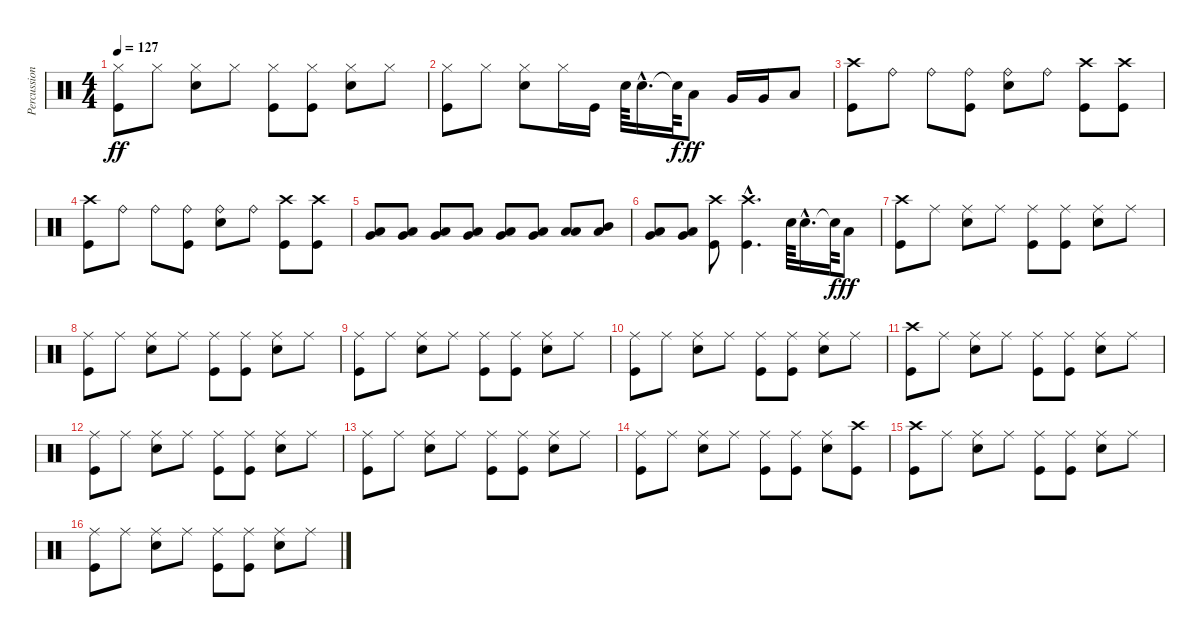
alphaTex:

\track ("Percussion" "Percussion") {instrument percussion}
\staff {score}
\articulation defaults
\ts (4 4)
\tempo 127
\clef neutral
\ks c
("Hi-Hat (closed)" "Kick (hit)").8{dy ff} "Hi-Hat (closed)".8 ("Hi-Hat (closed)" "Snare (hit) 2").8 "Hi-Hat (closed)".8 ("Hi-Hat (closed)" "Kick (hit)").8 ("Hi-Hat (closed)" "Kick (hit)").8 ("Hi-Hat (closed)" "Snare (hit) 2").8 "Hi-Hat (closed)".8 |
("Hi-Hat (closed)" "Kick (hit)").8 "Hi-Hat (closed)".8 ("Hi-Hat (closed)" "Snare (hit) 2").8 "Hi-Hat (closed)".16 "Kick (hit)".16 "Snare (hit) 2".64 "Snare (hit) 2"{hac}.16{d} "Snare (hit)"{t}.64{dy f} "Low Tom (hit)".8{dy ff} "Very Low Tom (hit)".16 "Very Low Tom (hit)".16 "Low Floor Tom (hit)".8 |
("Crash high (hit)" "Kick (hit)").8 "Ride (bell)".8 "Ride (bell)".8 ("Ride (bell)" "Kick (hit)").8 ("Ride (bell)" "Snare (hit) 2").8 "Ride (bell)".8 ("Crash high (hit)" "Kick (hit)").8 ("Crash high (hit)" "Kick (hit)").8 |
("Crash high (hit)" "Kick (hit)").8 "Ride (bell)".8 "Ride (bell)".8 ("Ride (bell)" "Kick (hit)").8 ("Ride (bell)" "Snare (hit) 2").8 "Ride (bell)".8 ("Crash high (hit)" "Kick (hit)").8 ("Crash high (hit)" "Kick (hit)").8 |
("Very Low Tom (hit)" "Low Floor Tom (hit)").8 ("Very Low Tom (hit)" "Low Floor Tom (hit)").8 ("Very Low Tom (hit)" "Low Floor Tom (hit)").8 ("Very Low Tom (hit)" "Low Floor Tom (hit)").8 ("Very Low Tom (hit)" "Low Floor Tom (hit)").8 ("Very Low Tom (hit)" "Low Floor Tom (hit)").8 ("Low Tom (hit)" "Low Floor Tom (hit)").8 ("Mid Tom (hit)" "Low Floor Tom (hit)").8 |
("Very Low Tom (hit)" "Low Floor Tom (hit)").8 ("Very Low Tom (hit)" "Low Floor Tom (hit)").8 ("Crash high (hit)" "Kick (hit)").8 ("Crash high (hit)"{hac} "Kick (hit)"{hac}).4{d} "Snare (hit) 2".64 "Snare (hit) 2"{hac}.16{d} "Snare (hit)"{t}.64{dy f} "Low Tom (hit)".8{dy ff} |
("Crash high (hit)" "Kick (hit)").8 "Ride (middle)".8 ("Ride (middle)" "Snare (hit) 2").8 "Ride (middle)".8 ("Ride (middle)" "Kick (hit)").8 ("Ride (middle)" "Kick (hit)").8 ("Ride (middle)" "Snare (hit) 2").8 "Ride (middle)".8 |
("Ride (middle)" "Kick (hit)").8 "Ride (middle)".8 ("Ride (middle)" "Snare (hit) 2").8 "Ride (middle)".8 ("Ride (middle)" "Kick (hit)").8 ("Ride (middle)" "Kick (hit)").8 ("Ride (middle)" "Snare (hit) 2").8 "Ride (middle)".8 |
("Ride (middle)" "Kick (hit)").8 "Ride (middle)".8 ("Ride (middle)" "Snare (hit) 2").8 "Ride (middle)".8 ("Ride (middle)" "Kick (hit)").8 ("Ride (middle)" "Kick (hit)").8 ("Ride (middle)" "Snare (hit) 2").8 "Ride (middle)".8 |
("Ride (middle)" "Kick (hit)").8 "Ride (middle)".8 ("Ride (middle)" "Snare (hit) 2").8 "Ride (middle)".8 ("Ride (middle)" "Kick (hit)").8 ("Ride (middle)" "Kick (hit)").8 ("Ride (middle)" "Snare (hit) 2").8 "Ride (middle)".8 |
("Crash high (hit)" "Kick (hit)").8 "Ride (middle)".8 ("Ride (middle)" "Snare (hit) 2").8 "Ride (middle)".8 ("Ride (middle)" "Kick (hit)").8 ("Ride (middle)" "Kick (hit)").8 ("Ride (middle)" "Snare (hit) 2").8 "Ride (middle)".8 |
("Ride (middle)" "Kick (hit)").8 "Ride (middle)".8 ("Ride (middle)" "Snare (hit) 2").8 "Ride (middle)".8 ("Ride (middle)" "Kick (hit)").8 ("Ride (middle)" "Kick (hit)").8 ("Ride (middle)" "Snare (hit) 2").8 "Ride (middle)".8 |
("Ride (middle)" "Kick (hit)").8 "Ride (middle)".8 ("Ride (middle)" "Snare (hit) 2").8 "Ride (middle)".8 ("Ride (middle)" "Kick (hit)").8 ("Ride (middle)" "Kick (hit)").8 ("Ride (middle)" "Snare (hit) 2").8 "Ride (middle)".8 |
("Ride (middle)" "Kick (hit)").8 "Ride (middle)".8 ("Ride (middle)" "Snare (hit) 2").8 "Ride (middle)".8 ("Ride (middle)" "Kick (hit)").8 ("Ride (middle)" "Kick (hit)").8 ("Ride (middle)" "Snare (hit) 2").8 ("Crash high (hit)" "Kick (hit)").8 |
("Crash high (hit)" "Kick (hit)").8 "Ride (middle)".8 ("Ride (middle)" "Snare (hit) 2").8 "Ride (middle)".8 ("Ride (middle)" "Kick (hit)").8 ("Ride (middle)" "Kick (hit)").8 ("Ride (middle)" "Snare (hit) 2").8 "Ride (middle)".8 |
("Ride (middle)" "Kick (hit)").8 "Ride (middle)".8 ("Ride (middle)" "Snare (hit) 2").8 "Ride (middle)".8 ("Ride (middle)" "Kick (hit)").8 ("Ride (middle)" "Kick (hit)").8 ("Ride (middle)" "Snare (hit) 2").8 "Ride (middle)".8
